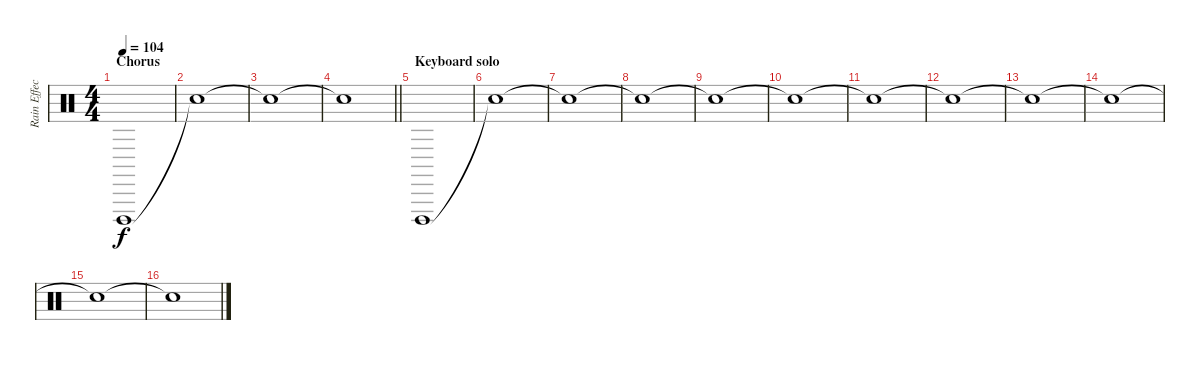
\track ("Rain Effect" "Rain Effec") {instrument percussion}
\staff {score}
\articulation defaults
\ts (4 4)
\section ("" "Chorus")
\tempo 104
\clef neutral
\ks c "Cuica (open)".1{dy f}
|
"Snare (hit)"{t}.1 |
"Snare (hit)"{t}.1 |
\barLineRight lightlight "Snare (hit)"{t}.1
|
\section ("" "Keyboard solo")
"Cuica (open)".1 |
"Snare (hit)"{t}.1 |
"Snare (hit)"{t}.1 |
"Snare (hit)"{t}.1 |
"Snare (hit)"{t}.1 |
"Snare (hit)"{t}.1 |
"Snare (hit)"{t}.1 |
"Snare (hit)"{t}.1 |
"Snare (hit)"{t}.1 |
"Snare (hit)"{t}.1 |
"Snare (hit)"{t}.1 |
"Snare (hit)"{t}.1
